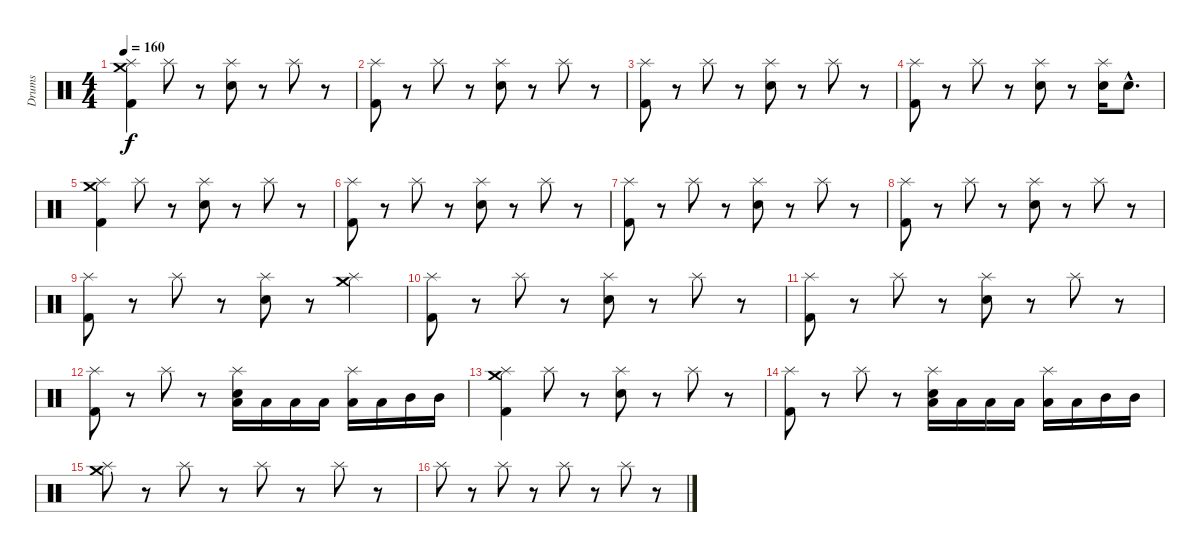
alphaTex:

\track ("Drums" "Drums") {instrument percussion}
\staff {score}
\articulation defaults
\ts (4 4)
\tempo 160
\clef neutral
\ks c
("Kick (hit) 2" "Splash (hit)" "Crash medium (hit)").4{dy f} "Splash (hit)".8 r.8 ("Snare (hit) 2" "Splash (hit)").8 r.8 "Splash (hit)".8 r.8 |
("Kick (hit) 2" "Splash (hit)").8 r.8 "Splash (hit)".8 r.8 ("Snare (hit) 2" "Splash (hit)").8 r.8 "Splash (hit)".8 r.8 |
("Kick (hit) 2" "Splash (hit)").8 r.8 "Splash (hit)".8 r.8 ("Snare (hit) 2" "Splash (hit)").8 r.8 "Splash (hit)".8 r.8 |
("Kick (hit) 2" "Splash (hit)").8 r.8 "Splash (hit)".8 r.8 ("Snare (hit) 2" "Splash (hit)").8 r.8 ("Splash (hit)" "Snare (hit) 2").16 "Snare (hit) 2"{hac}.8{d} |
("Kick (hit) 2" "Splash (hit)" "Crash medium (hit)").4 "Splash (hit)".8 r.8 ("Snare (hit) 2" "Splash (hit)").8 r.8 "Splash (hit)".8 r.8 |
("Kick (hit) 2" "Splash (hit)").8 r.8 "Splash (hit)".8 r.8 ("Snare (hit) 2" "Splash (hit)").8 r.8 "Splash (hit)".8 r.8 |
("Kick (hit) 2" "Splash (hit)").8 r.8 "Splash (hit)".8 r.8 ("Snare (hit) 2" "Splash (hit)").8 r.8 "Splash (hit)".8 r.8 |
("Kick (hit) 2" "Splash (hit)").8 r.8 "Splash (hit)".8 r.8 ("Snare (hit) 2" "Splash (hit)").8 r.8 "Splash (hit)".8 r.8 |
("Kick (hit) 2" "Splash (hit)").8 r.8 "Splash (hit)".8 r.8 ("Snare (hit) 2" "Splash (hit)").8 r.8 ("Splash (hit)" "Crash medium (hit)").4 |
("Kick (hit) 2" "Splash (hit)").8 r.8 "Splash (hit)".8 r.8 ("Snare (hit) 2" "Splash (hit)").8 r.8 "Splash (hit)".8 r.8 |
("Splash (hit)" "Kick (hit) 2").8 r.8 "Splash (hit)".8 r.8 ("Splash (hit)" "Snare (hit) 2").8 r.8 "Splash (hit)".8 r.8 |
("Splash (hit)" "Kick (hit) 2").8 r.8 "Splash (hit)".8 r.8 ("Splash (hit)" "Snare (hit) 2" "Low Tom (hit)").16 "Low Tom (hit)".16 "Low Tom (hit)".16 "Low Floor Tom (hit)".16 ("Splash (hit)" "Low Floor Tom (hit)").16 "Low Floor Tom (hit)".16 "Mid Tom (hit)".16 "Mid Tom (hit)".16 |
("Splash (hit)" "Kick (hit) 2" "Crash medium (hit)").4 "Splash (hit)".8 r.8 ("Splash (hit)" "Snare (hit) 2").8 r.8 "Splash (hit)".8 r.8 |
("Splash (hit)" "Kick (hit) 2").8 r.8 "Splash (hit)".8 r.8 ("Splash (hit)" "Snare (hit) 2" "Low Tom (hit)").16 "Low Tom (hit)".16 "Low Tom (hit)".16 "Low Floor Tom (hit)".16 ("Splash (hit)" "Low Floor Tom (hit)").16 "Low Floor Tom (hit)".16 "Mid Tom (hit)".16 "Mid Tom (hit)".16 |
("Splash (hit)" "Crash medium (hit)").8 r.8 "Splash (hit)".8 r.8 "Splash (hit)".8 r.8 "Splash (hit)".8 r.8 |
"Splash (hit)".8 r.8 "Splash (hit)".8 r.8 "Splash (hit)".8 r.8 "Splash (hit)".8 r.8
